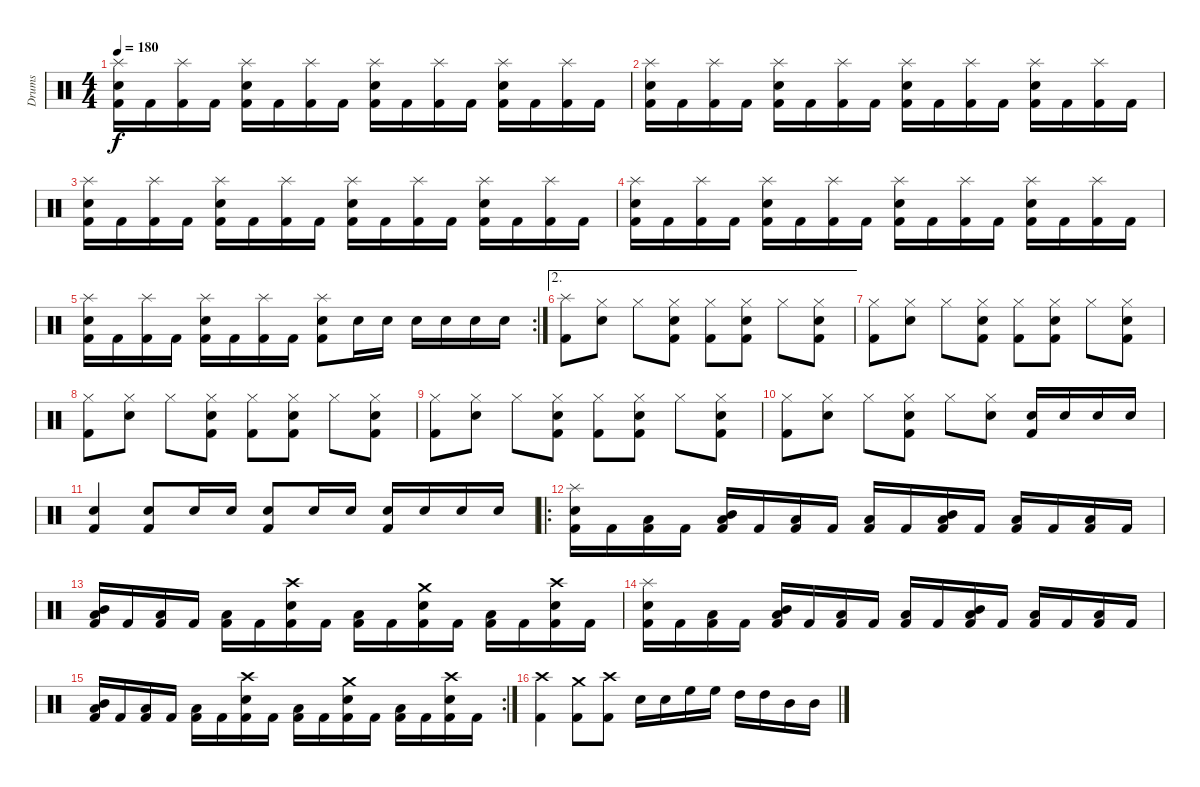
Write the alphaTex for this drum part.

\track ("Drums" "Drums") {instrument percussion}
\staff {score}
\articulation defaults
\ts (4 4)
\tempo 180
\clef neutral
\ks c
("Splash (hit)" "Snare (hit) 2" "Kick (hit) 2").16{dy f} "Kick (hit) 2".16 ("Splash (hit)" "Kick (hit) 2").16 "Kick (hit) 2".16 ("Splash (hit)" "Snare (hit) 2" "Kick (hit) 2").16 "Kick (hit) 2".16 ("Splash (hit)" "Kick (hit) 2").16 "Kick (hit) 2".16 ("Splash (hit)" "Snare (hit) 2" "Kick (hit) 2").16 "Kick (hit) 2".16 ("Splash (hit)" "Kick (hit) 2").16 "Kick (hit) 2".16 ("Splash (hit)" "Snare (hit) 2" "Kick (hit) 2").16 "Kick (hit) 2".16 ("Splash (hit)" "Kick (hit) 2").16 "Kick (hit) 2".16 |
("Splash (hit)" "Snare (hit) 2" "Kick (hit) 2").16 "Kick (hit) 2".16 ("Splash (hit)" "Kick (hit) 2").16 "Kick (hit) 2".16 ("Splash (hit)" "Snare (hit) 2" "Kick (hit) 2").16 "Kick (hit) 2".16 ("Splash (hit)" "Kick (hit) 2").16 "Kick (hit) 2".16 ("Splash (hit)" "Snare (hit) 2" "Kick (hit) 2").16 "Kick (hit) 2".16 ("Splash (hit)" "Kick (hit) 2").16 "Kick (hit) 2".16 ("Splash (hit)" "Snare (hit) 2" "Kick (hit) 2").16 "Kick (hit) 2".16 ("Splash (hit)" "Kick (hit) 2").16 "Kick (hit) 2".16 |
("Splash (hit)" "Snare (hit) 2" "Kick (hit) 2").16 "Kick (hit) 2".16 ("Splash (hit)" "Kick (hit) 2").16 "Kick (hit) 2".16 ("Splash (hit)" "Snare (hit) 2" "Kick (hit) 2").16 "Kick (hit) 2".16 ("Splash (hit)" "Kick (hit) 2").16 "Kick (hit) 2".16 ("Splash (hit)" "Snare (hit) 2" "Kick (hit) 2").16 "Kick (hit) 2".16 ("Splash (hit)" "Kick (hit) 2").16 "Kick (hit) 2".16 ("Splash (hit)" "Snare (hit) 2" "Kick (hit) 2").16 "Kick (hit) 2".16 ("Splash (hit)" "Kick (hit) 2").16 "Kick (hit) 2".16 |
("Splash (hit)" "Snare (hit) 2" "Kick (hit) 2").16 "Kick (hit) 2".16 ("Splash (hit)" "Kick (hit) 2").16 "Kick (hit) 2".16 ("Splash (hit)" "Snare (hit) 2" "Kick (hit) 2").16 "Kick (hit) 2".16 ("Splash (hit)" "Kick (hit) 2").16 "Kick (hit) 2".16 ("Splash (hit)" "Snare (hit) 2" "Kick (hit) 2").16 "Kick (hit) 2".16 ("Splash (hit)" "Kick (hit) 2").16 "Kick (hit) 2".16 ("Splash (hit)" "Snare (hit) 2" "Kick (hit) 2").16 "Kick (hit) 2".16 ("Splash (hit)" "Kick (hit) 2").16 "Kick (hit) 2".16 |
\rc 2
("Splash (hit)" "Snare (hit) 2" "Kick (hit) 2").16 "Kick (hit) 2".16 ("Splash (hit)" "Kick (hit) 2").16 "Kick (hit) 2".16 ("Splash (hit)" "Snare (hit) 2" "Kick (hit) 2").16 "Kick (hit) 2".16 ("Splash (hit)" "Kick (hit) 2").16 "Kick (hit) 2".16 ("Splash (hit)" "Snare (hit) 2" "Kick (hit) 2").8 "Snare (hit) 2".16 "Snare (hit) 2".16 "Snare (hit) 2".16 "Snare (hit) 2".16 "Snare (hit) 2".16 "Snare (hit) 2".16 |
\ae 2
("Splash (hit)" "Kick (hit) 2").8 ("Hi-Hat (closed)" "Snare (hit) 2").8 "Hi-Hat (closed)".8 ("Hi-Hat (closed)" "Snare (hit) 2" "Kick (hit) 2").8 ("Hi-Hat (closed)" "Kick (hit) 2").8 ("Hi-Hat (closed)" "Snare (hit) 2" "Kick (hit) 2").8 "Hi-Hat (closed)".8 ("Hi-Hat (closed)" "Snare (hit) 2" "Kick (hit) 2").8 |
("Hi-Hat (closed)" "Kick (hit) 2").8 ("Hi-Hat (closed)" "Snare (hit) 2").8 "Hi-Hat (closed)".8 ("Hi-Hat (closed)" "Snare (hit) 2" "Kick (hit) 2").8 ("Hi-Hat (closed)" "Kick (hit) 2").8 ("Hi-Hat (closed)" "Snare (hit) 2" "Kick (hit) 2").8 "Hi-Hat (closed)".8 ("Hi-Hat (closed)" "Snare (hit) 2" "Kick (hit) 2").8 |
("Hi-Hat (closed)" "Kick (hit) 2").8 ("Hi-Hat (closed)" "Snare (hit) 2").8 "Hi-Hat (closed)".8 ("Hi-Hat (closed)" "Snare (hit) 2" "Kick (hit) 2").8 ("Hi-Hat (closed)" "Kick (hit) 2").8 ("Hi-Hat (closed)" "Snare (hit) 2" "Kick (hit) 2").8 "Hi-Hat (closed)".8 ("Hi-Hat (closed)" "Snare (hit) 2" "Kick (hit) 2").8 |
("Hi-Hat (closed)" "Kick (hit) 2").8 ("Hi-Hat (closed)" "Snare (hit) 2").8 "Hi-Hat (closed)".8 ("Hi-Hat (closed)" "Snare (hit) 2" "Kick (hit) 2").8 ("Hi-Hat (closed)" "Kick (hit) 2").8 ("Hi-Hat (closed)" "Snare (hit) 2" "Kick (hit) 2").8 "Hi-Hat (closed)".8 ("Hi-Hat (closed)" "Snare (hit) 2" "Kick (hit) 2").8 |
("Hi-Hat (closed)" "Kick (hit) 2").8 ("Hi-Hat (closed)" "Snare (hit) 2").8 "Hi-Hat (closed)".8 ("Hi-Hat (closed)" "Snare (hit) 2" "Kick (hit) 2").8 "Hi-Hat (closed)".8 ("Hi-Hat (closed)" "Snare (hit) 2").8 ("Snare (hit) 2" "Kick (hit) 2").16 "Snare (hit) 2".16 "Snare (hit) 2".16 "Snare (hit) 2".16 |
("Snare (hit) 2" "Kick (hit) 2").4 ("Snare (hit) 2" "Kick (hit) 2").8 "Snare (hit) 2".16 "Snare (hit) 2".16 ("Snare (hit) 2" "Kick (hit) 2").8 "Snare (hit) 2".16 "Snare (hit) 2".16 ("Snare (hit) 2" "Kick (hit) 2").16 "Snare (hit) 2".16 "Snare (hit) 2".16 "Snare (hit) 2".16 |
\ro
("Splash (hit)" "Snare (hit) 2" "Kick (hit) 2").16 "Kick (hit) 2".16 ("Low Tom (hit)" "Kick (hit) 2").16 "Kick (hit) 2".16 ("Mid Tom (hit)" "Low Tom (hit)" "Kick (hit) 2").16 "Kick (hit) 2".16 ("Low Tom (hit)" "Kick (hit) 2").16 "Kick (hit) 2".16 ("Low Tom (hit)" "Kick (hit) 2").16 "Kick (hit) 2".16 ("Mid Tom (hit)" "Low Tom (hit)" "Kick (hit) 2").16 "Kick (hit) 2".16 ("Low Tom (hit)" "Kick (hit) 2").16 "Kick (hit) 2".16 ("Low Tom (hit)" "Kick (hit) 2").16 "Kick (hit) 2".16 |
("Mid Tom (hit)" "Low Tom (hit)" "Kick (hit) 2").16 "Kick (hit) 2".16 ("Low Tom (hit)" "Kick (hit) 2").16 "Kick (hit) 2".16 ("Low Tom (hit)" "Kick (hit) 2").16 "Kick (hit) 2".16 ("Crash high (hit)" "Snare (hit) 2" "Kick (hit) 2").16 "Kick (hit) 2".16 ("Low Tom (hit)" "Kick (hit) 2").16 "Kick (hit) 2".16 ("Crash medium (hit)" "Snare (hit) 2" "Kick (hit) 2").16 "Kick (hit) 2".16 ("Low Tom (hit)" "Kick (hit) 2").16 "Kick (hit) 2".16 ("Crash high (hit)" "Snare (hit) 2" "Kick (hit) 2").16 "Kick (hit) 2".16 |
("Splash (hit)" "Snare (hit) 2" "Kick (hit) 2").16 "Kick (hit) 2".16 ("Low Tom (hit)" "Kick (hit) 2").16 "Kick (hit) 2".16 ("Mid Tom (hit)" "Low Tom (hit)" "Kick (hit) 2").16 "Kick (hit) 2".16 ("Low Tom (hit)" "Kick (hit) 2").16 "Kick (hit) 2".16 ("Low Tom (hit)" "Kick (hit) 2").16 "Kick (hit) 2".16 ("Mid Tom (hit)" "Low Tom (hit)" "Kick (hit) 2").16 "Kick (hit) 2".16 ("Low Tom (hit)" "Kick (hit) 2").16 "Kick (hit) 2".16 ("Low Tom (hit)" "Kick (hit) 2").16 "Kick (hit) 2".16 |
\rc 2
("Mid Tom (hit)" "Low Tom (hit)" "Kick (hit) 2").16 "Kick (hit) 2".16 ("Low Tom (hit)" "Kick (hit) 2").16 "Kick (hit) 2".16 ("Low Tom (hit)" "Kick (hit) 2").16 "Kick (hit) 2".16 ("Crash high (hit)" "Snare (hit) 2" "Kick (hit) 2").16 "Kick (hit) 2".16 ("Low Tom (hit)" "Kick (hit) 2").16 "Kick (hit) 2".16 ("Crash medium (hit)" "Snare (hit) 2" "Kick (hit) 2").16 "Kick (hit) 2".16 ("Low Tom (hit)" "Kick (hit) 2").16 "Kick (hit) 2".16 ("Crash high (hit)" "Snare (hit) 2" "Kick (hit) 2").16 "Kick (hit) 2".16 |
("Crash high (hit)" "Kick (hit) 2").4 ("Crash medium (hit)" "Kick (hit) 2").8 ("Crash high (hit)" "Kick (hit) 2").8 "Snare (hit) 2".16 "Snare (hit) 2".16 "High Floor Tom (hit)".16 "High Floor Tom (hit)".16 "High Tom (hit)".16 "High Tom (hit)".16 "Mid Tom (hit)".16 "Mid Tom (hit)".16
